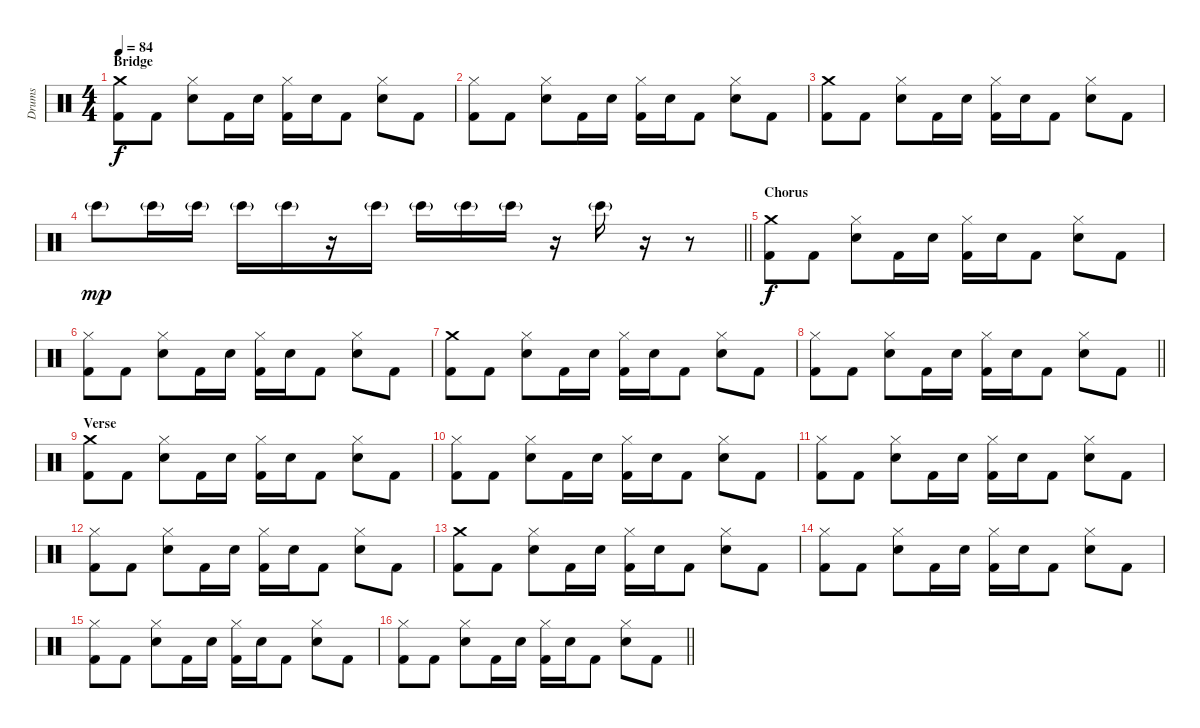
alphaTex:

\track ("Drums" "Drums") {instrument percussion}
\staff {score}
\articulation defaults
\ts (4 4)
\section ("" "Bridge")
\tempo 84
\clef neutral
\ks c
("Crash medium (hit)" "Kick (hit) 2").8{dy f} "Kick (hit) 2".8 ("Hi-Hat (closed)" "Snare (hit) 2").8 "Kick (hit) 2".16 "Snare (hit) 2".16 ("Hi-Hat (closed)" "Kick (hit) 2").16 "Snare (hit) 2".16 "Kick (hit) 2".8 ("Hi-Hat (closed)" "Snare (hit) 2").8 "Kick (hit) 2".8 |
("Hi-Hat (closed)" "Kick (hit) 2").8 "Kick (hit) 2".8 ("Hi-Hat (closed)" "Snare (hit) 2").8 "Kick (hit) 2".16 "Snare (hit) 2".16 ("Hi-Hat (closed)" "Kick (hit) 2").16 "Snare (hit) 2".16 "Kick (hit) 2".8 ("Hi-Hat (closed)" "Snare (hit) 2").8 "Kick (hit) 2".8 |
("Crash medium (hit)" "Kick (hit) 2").8 "Kick (hit) 2".8 ("Hi-Hat (closed)" "Snare (hit) 2").8 "Kick (hit) 2".16 "Snare (hit) 2".16 ("Hi-Hat (closed)" "Kick (hit) 2").16 "Snare (hit) 2".16 "Kick (hit) 2".8 ("Hi-Hat (closed)" "Snare (hit) 2").8 "Kick (hit) 2".8 |
\barLineRight lightlight "Bongo High (hit)"{g}.8{dy mp} "Bongo High (hit)"{g}.16 "Bongo High (hit)"{g}.16 "Bongo High (hit)"{g}.16 "Bongo High (hit)"{g}.16
r.16 "Bongo High (hit)"{g}.16 "Bongo High (hit)"{g}.16 "Bongo High (hit)"{g}.16 "Bongo High (hit)"{g}.16 r.16 "Bongo High (hit)"{g}.16 r.16 r.8 |
\section ("" "Chorus")
("Crash medium (hit)" "Kick (hit) 2").8{dy f} "Kick (hit) 2".8 ("Hi-Hat (closed)" "Snare (hit) 2").8 "Kick (hit) 2".16 "Snare (hit) 2".16 ("Hi-Hat (closed)" "Kick (hit) 2").16 "Snare (hit) 2".16 "Kick (hit) 2".8 ("Hi-Hat (closed)" "Snare (hit) 2").8 "Kick (hit) 2".8 |
("Hi-Hat (closed)" "Kick (hit) 2").8 "Kick (hit) 2".8 ("Hi-Hat (closed)" "Snare (hit) 2").8 "Kick (hit) 2".16 "Snare (hit) 2".16 ("Hi-Hat (closed)" "Kick (hit) 2").16 "Snare (hit) 2".16 "Kick (hit) 2".8 ("Hi-Hat (closed)" "Snare (hit) 2").8 "Kick (hit) 2".8 |
("Crash medium (hit)" "Kick (hit) 2").8 "Kick (hit) 2".8 ("Hi-Hat (closed)" "Snare (hit) 2").8 "Kick (hit) 2".16 "Snare (hit) 2".16 ("Hi-Hat (closed)" "Kick (hit) 2").16 "Snare (hit) 2".16 "Kick (hit) 2".8 ("Hi-Hat (closed)" "Snare (hit) 2").8 "Kick (hit) 2".8 |
\barLineRight lightlight
("Hi-Hat (closed)" "Kick (hit) 2").8 "Kick (hit) 2".8 ("Hi-Hat (closed)" "Snare (hit) 2").8 "Kick (hit) 2".16 "Snare (hit) 2".16 ("Hi-Hat (closed)" "Kick (hit) 2").16 "Snare (hit) 2".16 "Kick (hit) 2".8 ("Hi-Hat (closed)" "Snare (hit) 2").8 "Kick (hit) 2".8 |
\section ("" "Verse")
("Crash medium (hit)" "Kick (hit) 2").8 "Kick (hit) 2".8 ("Hi-Hat (closed)" "Snare (hit) 2").8 "Kick (hit) 2".16 "Snare (hit) 2".16 ("Hi-Hat (closed)" "Kick (hit) 2").16 "Snare (hit) 2".16 "Kick (hit) 2".8 ("Hi-Hat (closed)" "Snare (hit) 2").8 "Kick (hit) 2".8 |
("Hi-Hat (closed)" "Kick (hit) 2").8 "Kick (hit) 2".8 ("Hi-Hat (closed)" "Snare (hit) 2").8 "Kick (hit) 2".16 "Snare (hit) 2".16 ("Hi-Hat (closed)" "Kick (hit) 2").16 "Snare (hit) 2".16 "Kick (hit) 2".8 ("Hi-Hat (closed)" "Snare (hit) 2").8 "Kick (hit) 2".8 |
("Hi-Hat (closed)" "Kick (hit) 2").8 "Kick (hit) 2".8 ("Hi-Hat (closed)" "Snare (hit) 2").8 "Kick (hit) 2".16 "Snare (hit) 2".16 ("Hi-Hat (closed)" "Kick (hit) 2").16 "Snare (hit) 2".16 "Kick (hit) 2".8 ("Hi-Hat (closed)" "Snare (hit) 2").8 "Kick (hit) 2".8 |
("Hi-Hat (closed)" "Kick (hit) 2").8 "Kick (hit) 2".8 ("Hi-Hat (closed)" "Snare (hit) 2").8 "Kick (hit) 2".16 "Snare (hit) 2".16 ("Hi-Hat (closed)" "Kick (hit) 2").16 "Snare (hit) 2".16 "Kick (hit) 2".8 ("Hi-Hat (closed)" "Snare (hit) 2").8 "Kick (hit) 2".8 |
("Crash medium (hit)" "Kick (hit) 2").8 "Kick (hit) 2".8 ("Hi-Hat (closed)" "Snare (hit) 2").8 "Kick (hit) 2".16 "Snare (hit) 2".16 ("Hi-Hat (closed)" "Kick (hit) 2").16 "Snare (hit) 2".16 "Kick (hit) 2".8 ("Hi-Hat (closed)" "Snare (hit) 2").8 "Kick (hit) 2".8 |
("Hi-Hat (closed)" "Kick (hit) 2").8 "Kick (hit) 2".8 ("Hi-Hat (closed)" "Snare (hit) 2").8 "Kick (hit) 2".16 "Snare (hit) 2".16 ("Hi-Hat (closed)" "Kick (hit) 2").16 "Snare (hit) 2".16 "Kick (hit) 2".8 ("Hi-Hat (closed)" "Snare (hit) 2").8 "Kick (hit) 2".8 |
("Hi-Hat (closed)" "Kick (hit) 2").8 "Kick (hit) 2".8 ("Hi-Hat (closed)" "Snare (hit) 2").8 "Kick (hit) 2".16 "Snare (hit) 2".16 ("Hi-Hat (closed)" "Kick (hit) 2").16 "Snare (hit) 2".16 "Kick (hit) 2".8 ("Hi-Hat (closed)" "Snare (hit) 2").8 "Kick (hit) 2".8 |
\barLineRight lightlight
("Hi-Hat (closed)" "Kick (hit) 2").8 "Kick (hit) 2".8 ("Hi-Hat (closed)" "Snare (hit) 2").8 "Kick (hit) 2".16 "Snare (hit) 2".16 ("Hi-Hat (closed)" "Kick (hit) 2").16 "Snare (hit) 2".16 "Kick (hit) 2".8 ("Hi-Hat (closed)" "Snare (hit) 2").8 "Kick (hit) 2".8
